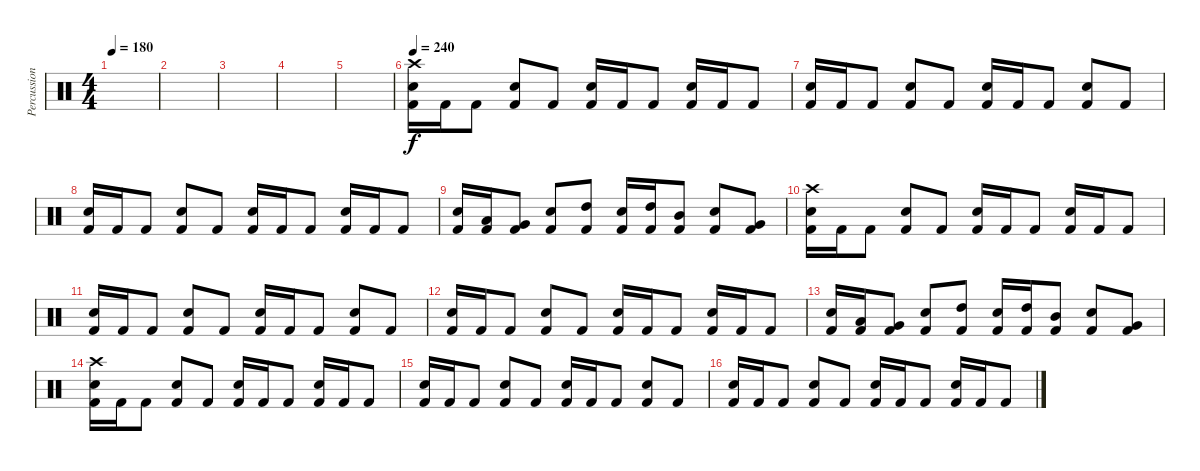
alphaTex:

\track ("Percussion" "Percussion") {mute instrument percussion}
\staff {score}
\articulation defaults
\ts (4 4)
\tempo 180
\clef neutral
\ks c
|
|
|
|
|
\tempo 240
("Crash high (hit)" "Electric Snare (hit)" "Kick (hit) 2").16 "Kick (hit) 2".16 "Kick (hit) 2".8 ("Electric Snare (hit)" "Kick (hit) 2").8 "Kick (hit) 2".8 ("Electric Snare (hit)" "Kick (hit) 2").16 "Kick (hit) 2".16 "Kick (hit) 2".8 ("Electric Snare (hit)" "Kick (hit) 2").16 "Kick (hit) 2".16 "Kick (hit) 2".8 |
("Electric Snare (hit)" "Kick (hit) 2").16 "Kick (hit) 2".16 "Kick (hit) 2".8 ("Electric Snare (hit)" "Kick (hit) 2").8 "Kick (hit) 2".8 ("Electric Snare (hit)" "Kick (hit) 2").16 "Kick (hit) 2".16 "Kick (hit) 2".8 ("Electric Snare (hit)" "Kick (hit) 2").8 "Kick (hit) 2".8 |
("Electric Snare (hit)" "Kick (hit) 2").16 "Kick (hit) 2".16 "Kick (hit) 2".8 ("Electric Snare (hit)" "Kick (hit) 2").8 "Kick (hit) 2".8 ("Electric Snare (hit)" "Kick (hit) 2").16 "Kick (hit) 2".16 "Kick (hit) 2".8 ("Electric Snare (hit)" "Kick (hit) 2").16 "Kick (hit) 2".16 "Kick (hit) 2".8 |
("Electric Snare (hit)" "Kick (hit) 2").16 ("Low Tom (hit)" "Kick (hit) 2").16 ("Very Low Tom (hit)" "Kick (hit) 2").8 ("Electric Snare (hit)" "Kick (hit) 2").8 ("High Tom (hit)" "Kick (hit) 2").8 ("Electric Snare (hit)" "Kick (hit) 2").16 ("High Tom (hit)" "Kick (hit) 2").16 ("Mid Tom (hit)" "Kick (hit) 2").8 ("Electric Snare (hit)" "Kick (hit) 2").8 ("Very Low Tom (hit)" "Kick (hit) 2").8 |
("Crash high (hit)" "Electric Snare (hit)" "Kick (hit) 2").16 "Kick (hit) 2".16 "Kick (hit) 2".8 ("Electric Snare (hit)" "Kick (hit) 2").8 "Kick (hit) 2".8 ("Electric Snare (hit)" "Kick (hit) 2").16 "Kick (hit) 2".16 "Kick (hit) 2".8 ("Electric Snare (hit)" "Kick (hit) 2").16 "Kick (hit) 2".16 "Kick (hit) 2".8 |
("Electric Snare (hit)" "Kick (hit) 2").16 "Kick (hit) 2".16 "Kick (hit) 2".8 ("Electric Snare (hit)" "Kick (hit) 2").8 "Kick (hit) 2".8 ("Electric Snare (hit)" "Kick (hit) 2").16 "Kick (hit) 2".16 "Kick (hit) 2".8 ("Electric Snare (hit)" "Kick (hit) 2").8 "Kick (hit) 2".8 |
("Electric Snare (hit)" "Kick (hit) 2").16 "Kick (hit) 2".16 "Kick (hit) 2".8 ("Electric Snare (hit)" "Kick (hit) 2").8 "Kick (hit) 2".8 ("Electric Snare (hit)" "Kick (hit) 2").16 "Kick (hit) 2".16 "Kick (hit) 2".8 ("Electric Snare (hit)" "Kick (hit) 2").16 "Kick (hit) 2".16 "Kick (hit) 2".8 |
("Electric Snare (hit)" "Kick (hit) 2").16 ("Low Tom (hit)" "Kick (hit) 2").16 ("Very Low Tom (hit)" "Kick (hit) 2").8 ("Electric Snare (hit)" "Kick (hit) 2").8 ("High Tom (hit)" "Kick (hit) 2").8 ("Electric Snare (hit)" "Kick (hit) 2").16 ("High Tom (hit)" "Kick (hit) 2").16 ("Mid Tom (hit)" "Kick (hit) 2").8 ("Electric Snare (hit)" "Kick (hit) 2").8 ("Very Low Tom (hit)" "Kick (hit) 2").8 |
("Crash high (hit)" "Electric Snare (hit)" "Kick (hit) 2").16 "Kick (hit) 2".16 "Kick (hit) 2".8 ("Electric Snare (hit)" "Kick (hit) 2").8 "Kick (hit) 2".8 ("Electric Snare (hit)" "Kick (hit) 2").16 "Kick (hit) 2".16 "Kick (hit) 2".8 ("Electric Snare (hit)" "Kick (hit) 2").16 "Kick (hit) 2".16 "Kick (hit) 2".8 |
("Electric Snare (hit)" "Kick (hit) 2").16 "Kick (hit) 2".16 "Kick (hit) 2".8 ("Electric Snare (hit)" "Kick (hit) 2").8 "Kick (hit) 2".8 ("Electric Snare (hit)" "Kick (hit) 2").16 "Kick (hit) 2".16 "Kick (hit) 2".8 ("Electric Snare (hit)" "Kick (hit) 2").8 "Kick (hit) 2".8 |
("Electric Snare (hit)" "Kick (hit) 2").16 "Kick (hit) 2".16 "Kick (hit) 2".8 ("Electric Snare (hit)" "Kick (hit) 2").8 "Kick (hit) 2".8 ("Electric Snare (hit)" "Kick (hit) 2").16 "Kick (hit) 2".16 "Kick (hit) 2".8 ("Electric Snare (hit)" "Kick (hit) 2").16 "Kick (hit) 2".16 "Kick (hit) 2".8
